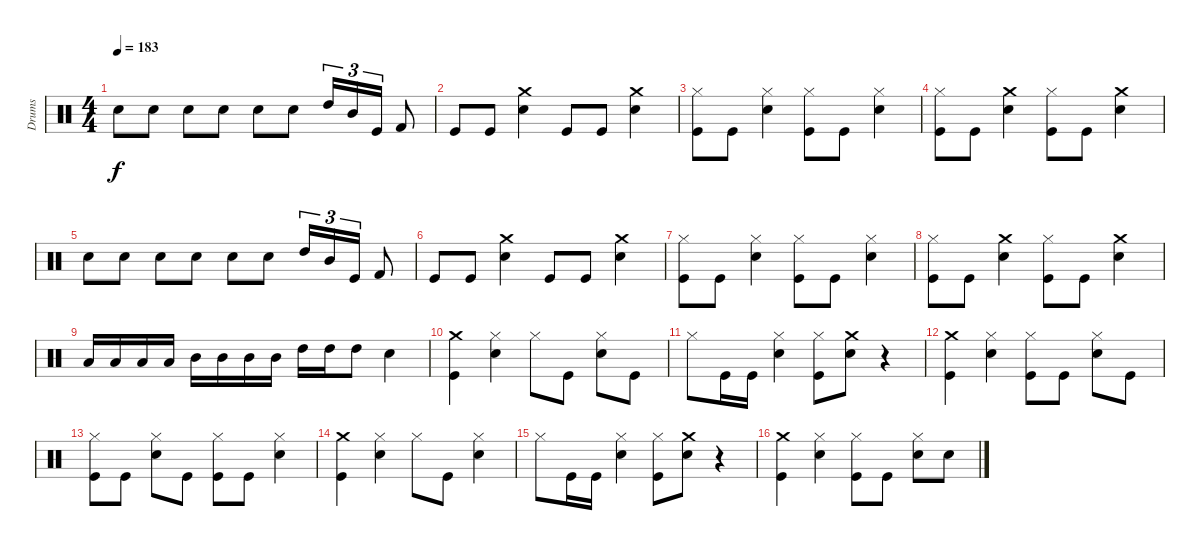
\track ("Drums" "Drums") {instrument percussion}
\staff {score}
\articulation defaults
\ts (4 4)
\tempo 183
\clef neutral
\ks c "Snare (hit) 2".8{dy f} "Snare (hit) 2".8 "Snare (hit) 2".8 "Snare (hit) 2".8 "Snare (hit) 2".8 "Snare (hit) 2".8 "High Tom (hit)".16{tu (3 2)} "Mid Tom (hit)".16{tu (3 2)} "Kick (hit)".16{tu (3 2)} "Kick (hit) 2".8
|
"Kick (hit)".8 "Kick (hit)".8 ("Crash medium (hit)" "Snare (hit) 2").4 "Kick (hit)".8 "Kick (hit)".8 ("Crash medium (hit)" "Snare (hit) 2").4 |
("Kick (hit)" "Hi-Hat (closed)").8 "Kick (hit)".8 ("Snare (hit) 2" "Hi-Hat (closed)").4 ("Kick (hit)" "Hi-Hat (closed)").8 "Kick (hit)".8 ("Snare (hit) 2" "Hi-Hat (closed)").4 |
("Kick (hit)" "Hi-Hat (closed)").8 "Kick (hit)".8 ("Snare (hit) 2" "Crash medium (hit)").4 ("Kick (hit)" "Hi-Hat (closed)").8 "Kick (hit)".8 ("Crash medium (hit)" "Snare (hit) 2").4 |
"Snare (hit) 2".8 "Snare (hit) 2".8 "Snare (hit) 2".8 "Snare (hit) 2".8 "Snare (hit) 2".8 "Snare (hit) 2".8 "High Tom (hit)".16{tu (3 2)} "Mid Tom (hit)".16{tu (3 2)} "Kick (hit)".16{tu (3 2)} "Kick (hit) 2".8 |
"Kick (hit)".8 "Kick (hit)".8 ("Crash medium (hit)" "Snare (hit) 2").4 "Kick (hit)".8 "Kick (hit)".8 ("Crash medium (hit)" "Snare (hit) 2").4 |
("Kick (hit)" "Hi-Hat (closed)").8 "Kick (hit)".8 ("Snare (hit) 2" "Hi-Hat (closed)").4 ("Kick (hit)" "Hi-Hat (closed)").8 "Kick (hit)".8 ("Snare (hit) 2" "Hi-Hat (closed)").4 |
("Kick (hit)" "Hi-Hat (closed)").8 "Kick (hit)".8 ("Snare (hit) 2" "Crash medium (hit)").4 ("Kick (hit)" "Hi-Hat (closed)").8 "Kick (hit)".8 ("Crash medium (hit)" "Snare (hit) 2").4 |
"Low Tom (hit)".16 "Low Tom (hit)".16 "Low Tom (hit)".16 "Low Tom (hit)".16 "Mid Tom (hit)".16 "Mid Tom (hit)".16 "Mid Tom (hit)".16 "Mid Tom (hit)".16 "High Tom (hit)".16 "High Tom (hit)".16 "High Tom (hit)".8 "Snare (hit) 2".4 |
("Kick (hit)" "Crash medium (hit)").4 ("Hi-Hat (closed)" "Snare (hit) 2").4 "Hi-Hat (closed)".8 "Kick (hit)".8 ("Snare (hit) 2" "Hi-Hat (closed)").8 "Kick (hit)".8 |
"Hi-Hat (closed)".8 "Kick (hit)".16 "Kick (hit)".16 ("Snare (hit) 2" "Hi-Hat (closed)").4 ("Hi-Hat (closed)" "Kick (hit)").8 ("Crash medium (hit)" "Snare (hit) 2").8 r.4 |
("Kick (hit)" "Crash medium (hit)").4 ("Hi-Hat (closed)" "Snare (hit) 2").4 ("Hi-Hat (closed)" "Kick (hit)").8 "Kick (hit)".8 ("Snare (hit) 2" "Hi-Hat (closed)").8 "Kick (hit)".8 |
("Hi-Hat (closed)" "Kick (hit)").8 "Kick (hit)".8 ("Snare (hit) 2" "Hi-Hat (closed)").8 "Kick (hit)".8 ("Hi-Hat (closed)" "Kick (hit)").8 "Kick (hit)".8 ("Snare (hit) 2" "Hi-Hat (closed)").4 |
("Kick (hit)" "Crash medium (hit)").4 ("Hi-Hat (closed)" "Snare (hit) 2").4 "Hi-Hat (closed)".8 "Kick (hit)".8 ("Snare (hit) 2" "Hi-Hat (closed)").4 |
"Hi-Hat (closed)".8 "Kick (hit)".16 "Kick (hit)".16 ("Snare (hit) 2" "Hi-Hat (closed)").4 ("Hi-Hat (closed)" "Kick (hit)").8 ("Crash medium (hit)" "Snare (hit) 2").8 r.4 |
("Crash medium (hit)" "Kick (hit)").4 ("Snare (hit) 2" "Hi-Hat (closed)").4 ("Hi-Hat (closed)" "Kick (hit)").8 "Kick (hit)".8 ("Hi-Hat (closed)" "Snare (hit) 2").8 "Snare (hit) 2".8
